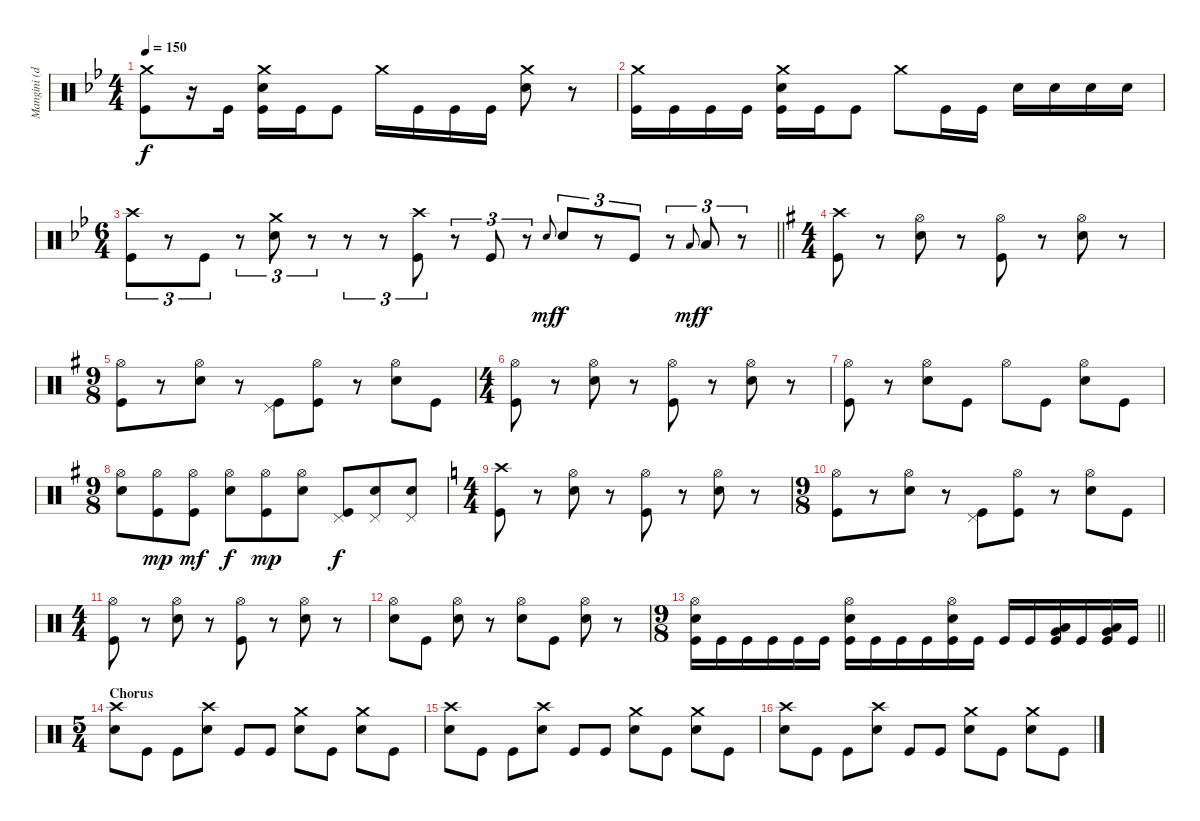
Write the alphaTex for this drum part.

\track ("Mangini (drums)" "Mangini (d") {instrument percussion}
\staff {score}
\articulation defaults
\ts (4 4)
\tempo 150
\clef neutral
\ks gminor
("Crash medium (hit)" "Kick (hit)").8{dy f} r.16 "Kick (hit)".16 ("Crash medium (hit)" "Snare (hit) 2" "Kick (hit)").16 "Kick (hit)".16 "Kick (hit)".8 "Crash medium (hit)".16 "Kick (hit)".16 "Kick (hit)".16 "Kick (hit)".16 ("Crash medium (hit)" "Snare (hit) 2").8 r.8 |
("Crash medium (hit)" "Kick (hit)").16 "Kick (hit)".16 "Kick (hit)".16 "Kick (hit)".16 ("Crash medium (hit)" "Snare (hit) 2" "Kick (hit)").16 "Kick (hit)".16 "Kick (hit)".8 "Crash medium (hit)".8 "Kick (hit)".16 "Kick (hit)".16 "Snare (hit) 2".16 "Snare (hit) 2".16 "Snare (hit) 2".16 "Snare (hit) 2".16 |
\ts (6 4)
\barLineRight lightlight
("Crash high (hit)" "Kick (hit)").8{tu (3 2)} r.8{tu (3 2)} "Kick (hit)".8{tu (3 2)} r.8{tu (3 2)} ("Crash medium (hit)" "Snare (hit) 2").8{tu (3 2)} r.8{tu (3 2)} r.8{tu (3 2)} r.8{tu (3 2)} ("Crash high (hit)" "Kick (hit)").8{tu (3 2)} r.8{tu (3 2)} "Kick (hit)".8{tu (3 2)} r.8{tu (3 2)} "Snare (hit) 2".8{gr onbeat dy mf} "Snare (hit) 2".8{tu (3 2) dy f} r.8{tu (3 2)} "Kick (hit)".8{tu (3 2)} r.8{tu (3 2)} "Low Tom (hit)".8{gr onbeat dy mf} "Low Tom (hit)".8{tu (3 2) dy f} r.8{tu (3 2)} |
\ts (4 4)
\ks eminor
("Crash high (hit)" "Kick (hit)").8 r.8 ("Hi-Hat (open)" "Snare (hit) 2").8 r.8 ("Hi-Hat (open)" "Kick (hit)").8 r.8 ("Hi-Hat (open)" "Snare (hit) 2").8 r.8 |
\ts (9 8)
("Hi-Hat (open)" "Kick (hit)").8 r.8 ("Hi-Hat (open)" "Snare (hit) 2").8 r.8 ("Pedal Hi-Hat (hit)" "Kick (hit)").8 ("Hi-Hat (open)" "Kick (hit)").8 r.8 ("Hi-Hat (open)" "Snare (hit) 2").8 "Kick (hit)".8 |
\ts (4 4)
("Hi-Hat (open)" "Kick (hit)").8 r.8 ("Hi-Hat (open)" "Snare (hit) 2").8 r.8 ("Hi-Hat (open)" "Kick (hit)").8 r.8 ("Hi-Hat (open)" "Snare (hit) 2").8 r.8 |
("Hi-Hat (open)" "Kick (hit)").8 r.8 ("Hi-Hat (open)" "Snare (hit) 2").8 "Kick (hit)".8 "Hi-Hat (open)".8 "Kick (hit)".8 ("Hi-Hat (open)" "Snare (hit) 2").8 "Kick (hit)".8 |
\ts (9 8)
("Hi-Hat (open)" "Snare (hit) 2").8 ("Hi-Hat (open)" "Kick (hit)").8{dy mp} ("Hi-Hat (open)" "Kick (hit)").8{dy mf} ("Hi-Hat (open)" "Snare (hit) 2").8{dy f} ("Hi-Hat (open)" "Kick (hit)").8{dy mp} ("Hi-Hat (open)" "Snare (hit) 2").8 ("Pedal Hi-Hat (hit)" "Kick (hit)").8{dy f} ("Pedal Hi-Hat (hit)" "Snare (hit) 2").8 ("Pedal Hi-Hat (hit)" "Snare (hit) 2").8 |
\ts (4 4)
\ks aminor
("Crash high (hit)" "Kick (hit)").8 r.8 ("Hi-Hat (open)" "Snare (hit) 2").8 r.8 ("Hi-Hat (open)" "Kick (hit)").8 r.8 ("Hi-Hat (open)" "Snare (hit) 2").8 r.8 |
\ts (9 8)
("Hi-Hat (open)" "Kick (hit)").8 r.8 ("Hi-Hat (open)" "Snare (hit) 2").8 r.8 ("Pedal Hi-Hat (hit)" "Kick (hit)").8 ("Hi-Hat (open)" "Kick (hit)").8 r.8 ("Hi-Hat (open)" "Snare (hit) 2").8 "Kick (hit)".8 |
\ts (4 4)
("Hi-Hat (open)" "Kick (hit)").8 r.8 ("Hi-Hat (open)" "Snare (hit) 2").8 r.8 ("Hi-Hat (open)" "Kick (hit)").8 r.8 ("Hi-Hat (open)" "Snare (hit) 2").8 r.8 |
("Hi-Hat (open)" "Snare (hit) 2").8 "Kick (hit)".8 ("Hi-Hat (open)" "Snare (hit) 2").8 r.8 ("Hi-Hat (open)" "Snare (hit) 2").8 "Kick (hit)".8 ("Hi-Hat (open)" "Snare (hit) 2").8 r.8 |
\ts (9 8)
\barLineRight lightlight
("Hi-Hat (open)" "Snare (hit) 2" "Kick (hit)").16 "Kick (hit)".16 "Kick (hit)".16 "Kick (hit)".16 "Kick (hit)".16 "Kick (hit)".16 ("Hi-Hat (open)" "Snare (hit) 2" "Kick (hit)").16 "Kick (hit)".16 "Kick (hit)".16 "Kick (hit)".16 ("Hi-Hat (open)" "Snare (hit) 2" "Kick (hit)").16 "Kick (hit)".16 "Kick (hit)".16 "Kick (hit)".16 ("Very Low Tom (hit)" "Low Tom (hit)" "Kick (hit)").16 "Kick (hit)".16 ("Very Low Tom (hit)" "Low Tom (hit)" "Kick (hit)").16 "Kick (hit)".16 |
\ts (5 4)
\section ("" "Chorus")
("Crash high (hit)" "Snare (hit) 2").8 "Kick (hit)".8 "Kick (hit)".8 ("Crash high (hit)" "Snare (hit) 2").8 "Kick (hit)".8 "Kick (hit)".8 ("Crash medium (hit)" "Snare (hit) 2").8 "Kick (hit)".8 ("Crash medium (hit)" "Snare (hit) 2").8 "Kick (hit)".8 |
("Crash high (hit)" "Snare (hit) 2").8 "Kick (hit)".8 "Kick (hit)".8 ("Crash high (hit)" "Snare (hit) 2").8 "Kick (hit)".8 "Kick (hit)".8 ("Crash medium (hit)" "Snare (hit) 2").8 "Kick (hit)".8 ("Crash medium (hit)" "Snare (hit) 2").8 "Kick (hit)".8 |
("Crash high (hit)" "Snare (hit) 2").8 "Kick (hit)".8 "Kick (hit)".8 ("Crash high (hit)" "Snare (hit) 2").8 "Kick (hit)".8 "Kick (hit)".8 ("Crash medium (hit)" "Snare (hit) 2").8 "Kick (hit)".8 ("Crash medium (hit)" "Snare (hit) 2").8 "Kick (hit)".8
